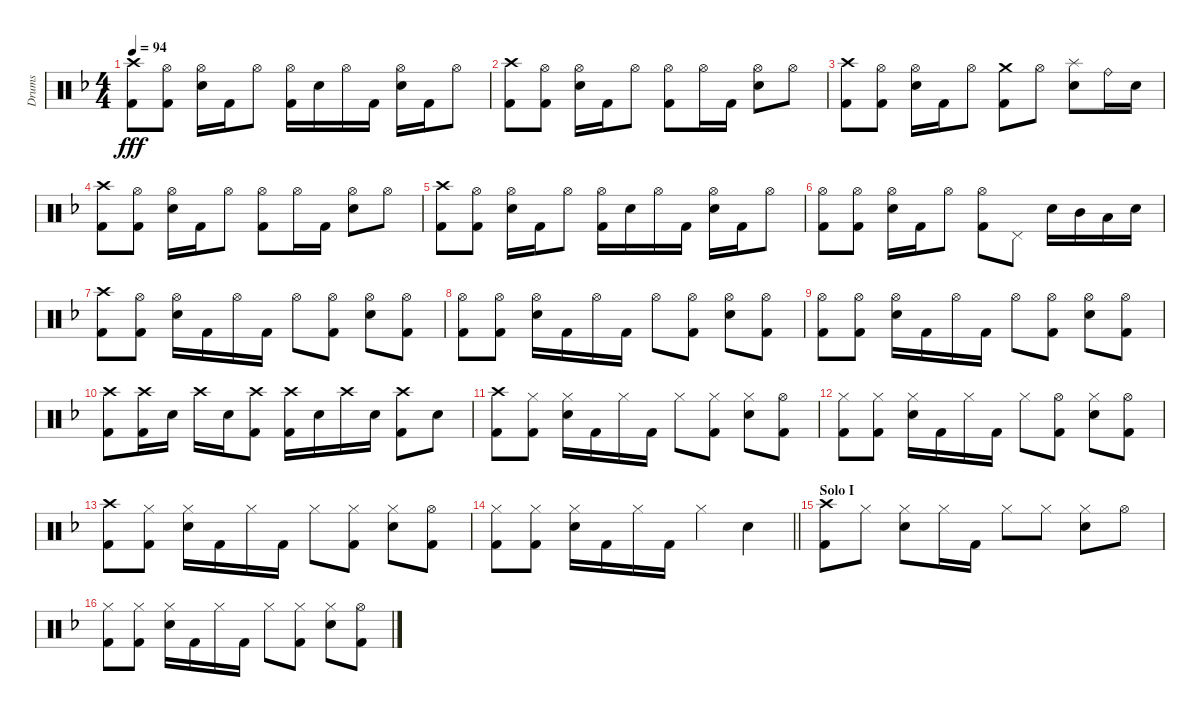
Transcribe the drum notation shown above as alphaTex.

\track ("Drums" "Drums") {instrument percussion}
\staff {score}
\articulation defaults
\ts (4 4)
\tempo 94
\clef neutral
\ks f
("Crash high (hit)" "Kick (hit) 2").8{dy fff} ("Hi-Hat (open)" "Kick (hit) 2").8 ("Hi-Hat (open)" "Snare (hit) 2").16 "Kick (hit) 2".16 "Hi-Hat (open)".8 ("Hi-Hat (open)" "Kick (hit) 2").16 "Snare (hit) 2".16 "Hi-Hat (open)".16 "Kick (hit) 2".16 ("Hi-Hat (open)" "Snare (hit) 2").16 "Kick (hit) 2".16 "Hi-Hat (open)".8 |
("Crash high (hit)" "Kick (hit) 2").8 ("Hi-Hat (open)" "Kick (hit) 2").8 ("Hi-Hat (open)" "Snare (hit) 2").16 "Kick (hit) 2".16 "Hi-Hat (open)".8 ("Hi-Hat (open)" "Kick (hit) 2").8 "Hi-Hat (open)".16 "Kick (hit) 2".16 ("Hi-Hat (open)" "Snare (hit) 2").8 "Hi-Hat (open)".8 |
("Crash high (hit)" "Kick (hit) 2").8 ("Hi-Hat (open)" "Kick (hit) 2").8 ("Hi-Hat (open)" "Snare (hit) 2").16 "Kick (hit) 2".16 "Hi-Hat (open)".8 ("Crash medium (hit)" "Kick (hit) 2").8 "Hi-Hat (open)".8 ("Splash (hit)" "Snare (hit) 2").8 "Ride (bell)".16 "Snare (hit) 2".16 |
("Crash high (hit)" "Kick (hit) 2").8 ("Hi-Hat (open)" "Kick (hit) 2").8 ("Hi-Hat (open)" "Snare (hit) 2").16 "Kick (hit) 2".16 "Hi-Hat (open)".8 ("Hi-Hat (open)" "Kick (hit) 2").8 "Hi-Hat (open)".16 "Kick (hit) 2".16 ("Hi-Hat (open)" "Snare (hit) 2").8 "Hi-Hat (open)".8 |
("Crash high (hit)" "Kick (hit) 2").8 ("Hi-Hat (open)" "Kick (hit) 2").8 ("Hi-Hat (open)" "Snare (hit) 2").16 "Kick (hit) 2".16 "Hi-Hat (open)".8 ("Hi-Hat (open)" "Kick (hit) 2").16 "Snare (hit) 2".16 "Hi-Hat (open)".16 "Kick (hit) 2".16 ("Hi-Hat (open)" "Snare (hit) 2").16 "Kick (hit) 2".16 "Hi-Hat (open)".8 |
("Hi-Hat (open)" "Kick (hit) 2").8 ("Hi-Hat (open)" "Kick (hit) 2").8 ("Hi-Hat (open)" "Snare (hit) 2").16 "Kick (hit) 2".16 "Hi-Hat (open)".8 ("Hi-Hat (open)" "Kick (hit) 2").8 "Pedal Hi-Hat (hit)".8 "Snare (hit) 2".16 "Mid Tom (hit)".16 "Low Tom (hit)".16 "Snare (hit) 2".16 |
("Crash high (hit)" "Kick (hit) 2").8 ("Hi-Hat (open)" "Kick (hit) 2").8 ("Hi-Hat (open)" "Snare (hit) 2").16 "Kick (hit) 2".16 "Hi-Hat (open)".16 "Kick (hit) 2".16 "Hi-Hat (open)".8 ("Hi-Hat (open)" "Kick (hit) 2").8 ("Hi-Hat (open)" "Snare (hit) 2").8 ("Hi-Hat (open)" "Kick (hit) 2").8 |
("Hi-Hat (open)" "Kick (hit) 2").8 ("Hi-Hat (open)" "Kick (hit) 2").8 ("Hi-Hat (open)" "Snare (hit) 2").16 "Kick (hit) 2".16 "Hi-Hat (open)".16 "Kick (hit) 2".16 "Hi-Hat (open)".8 ("Hi-Hat (open)" "Kick (hit) 2").8 ("Hi-Hat (open)" "Snare (hit) 2").8 ("Hi-Hat (open)" "Kick (hit) 2").8 |
("Hi-Hat (open)" "Kick (hit) 2").8 ("Hi-Hat (open)" "Kick (hit) 2").8 ("Hi-Hat (open)" "Snare (hit) 2").16 "Kick (hit) 2".16 "Hi-Hat (open)".16 "Kick (hit) 2".16 "Hi-Hat (open)".8 ("Hi-Hat (open)" "Kick (hit) 2").8 ("Hi-Hat (open)" "Snare (hit) 2").8 ("Hi-Hat (open)" "Kick (hit) 2").8 |
("Crash high (hit)" "Kick (hit) 2").8 ("Crash high (hit)" "Kick (hit) 2").16 "Snare (hit) 2".16 "Crash high (hit)".16 "Snare (hit) 2".16 ("Crash high (hit)" "Kick (hit) 2").8 ("Crash high (hit)" "Kick (hit) 2").16 "Snare (hit) 2".16 "Crash high (hit)".16 "Snare (hit) 2".16 ("Crash high (hit)" "Kick (hit) 2").8 "Snare (hit) 2".8 |
("Crash high (hit)" "Kick (hit) 2").8 ("Hi-Hat (closed)" "Kick (hit) 2").8 ("Hi-Hat (closed)" "Snare (hit) 2").16 "Kick (hit) 2".16 "Hi-Hat (closed)".16 "Kick (hit) 2".16 "Hi-Hat (closed)".8 ("Hi-Hat (closed)" "Kick (hit) 2").8 ("Hi-Hat (closed)" "Snare (hit) 2").8 ("Hi-Hat (open)" "Kick (hit) 2").8 |
("Hi-Hat (closed)" "Kick (hit) 2").8 ("Hi-Hat (closed)" "Kick (hit) 2").8 ("Hi-Hat (closed)" "Snare (hit) 2").16 "Kick (hit) 2".16 "Hi-Hat (closed)".16 "Kick (hit) 2".16 "Hi-Hat (closed)".8 ("Hi-Hat (open)" "Kick (hit) 2").8 ("Hi-Hat (closed)" "Snare (hit) 2").8 ("Hi-Hat (open)" "Kick (hit) 2").8 |
("Crash high (hit)" "Kick (hit) 2").8 ("Hi-Hat (closed)" "Kick (hit) 2").8 ("Hi-Hat (closed)" "Snare (hit) 2").16 "Kick (hit) 2".16 "Hi-Hat (closed)".16 "Kick (hit) 2".16 "Hi-Hat (closed)".8 ("Hi-Hat (closed)" "Kick (hit) 2").8 ("Hi-Hat (closed)" "Snare (hit) 2").8 ("Hi-Hat (open)" "Kick (hit) 2").8 |
\barLineRight lightlight
("Hi-Hat (closed)" "Kick (hit) 2").8 ("Hi-Hat (closed)" "Kick (hit) 2").8 ("Hi-Hat (closed)" "Snare (hit) 2").16 "Kick (hit) 2".16 "Hi-Hat (closed)".16 "Kick (hit) 2".16 "Hi-Hat (closed)".4 "Snare (hit) 2".4 |
\section ("" "Solo I")
("Crash high (hit)" "Kick (hit) 2").8 "Hi-Hat (closed)".8 ("Hi-Hat (closed)" "Snare (hit) 2").8 "Hi-Hat (closed)".16 "Kick (hit) 2".16 "Hi-Hat (closed)".8 "Hi-Hat (closed)".8 ("Hi-Hat (closed)" "Snare (hit) 2").8 "Hi-Hat (open)".8 |
("Hi-Hat (closed)" "Kick (hit) 2").8 ("Hi-Hat (closed)" "Kick (hit) 2").8 ("Hi-Hat (closed)" "Snare (hit) 2").16 "Kick (hit) 2".16 "Hi-Hat (closed)".16 "Kick (hit) 2".16 "Hi-Hat (closed)".8 ("Hi-Hat (closed)" "Kick (hit) 2").8 ("Hi-Hat (closed)" "Snare (hit) 2").8 ("Hi-Hat (open)" "Kick (hit) 2").8
